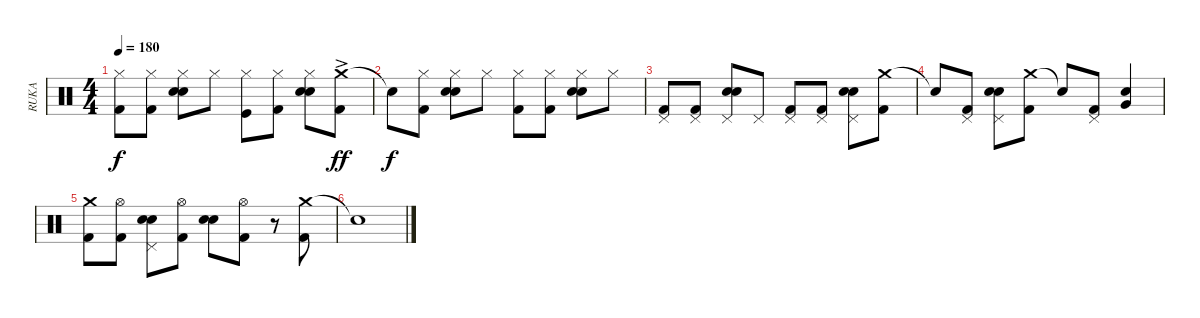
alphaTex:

\track ("RUKA" "RUKA") {instrument percussion}
\staff {score}
\articulation defaults
\ts (4 4)
\tempo 180
\clef neutral
\ks c
("Hi-Hat (closed)" "Kick (hit) 2").8{dy f} ("Hi-Hat (closed)" "Kick (hit) 2").8 ("Hi-Hat (closed)" "Snare (hit) 2" "Electric Snare (hit)").8 "Hi-Hat (closed)".8 ("Hi-Hat (closed)" "Kick (hit)").8 ("Hi-Hat (closed)" "Kick (hit) 2").8 ("Hi-Hat (closed)" "Snare (hit) 2" "Electric Snare (hit)").8 ("Crash medium (hit)"{ac} "Kick (hit) 2").8{dy ff} |
"Snare (hit)"{t}.8{dy f} ("Hi-Hat (closed)" "Kick (hit) 2").8 ("Hi-Hat (closed)" "Snare (hit) 2" "Electric Snare (hit)").8 "Hi-Hat (closed)".8 ("Hi-Hat (closed)" "Kick (hit) 2").8 ("Hi-Hat (closed)" "Kick (hit) 2").8 ("Hi-Hat (closed)" "Snare (hit) 2" "Electric Snare (hit)").8 "Hi-Hat (closed)".8 |
("Pedal Hi-Hat (hit)" "Kick (hit) 2").8 ("Pedal Hi-Hat (hit)" "Kick (hit) 2").8 ("Pedal Hi-Hat (hit)" "Snare (hit) 2" "Electric Snare (hit)").8 "Pedal Hi-Hat (hit)".8 ("Pedal Hi-Hat (hit)" "Kick (hit) 2").8 ("Pedal Hi-Hat (hit)" "Kick (hit) 2").8 ("Pedal Hi-Hat (hit)" "Snare (hit) 2" "Electric Snare (hit)").8 ("Crash medium (hit)" "Kick (hit) 2").8 |
"Snare (hit)"{t}.8 ("Pedal Hi-Hat (hit)" "Kick (hit) 2").8 ("Pedal Hi-Hat (hit)" "Snare (hit) 2" "Electric Snare (hit)").8 ("Crash medium (hit)" "Kick (hit) 2").8 "Snare (hit)"{t}.8 ("Pedal Hi-Hat (hit)" "Kick (hit) 2").8 ("Snare (hit) 2" "Very Low Tom (hit)").4 |
("Crash medium (hit)" "Kick (hit) 2").8 ("Hi-Hat (open)" "Kick (hit) 2").8 ("Pedal Hi-Hat (hit)" "Snare (hit) 2" "Electric Snare (hit)").8 ("Hi-Hat (open)" "Kick (hit) 2").8 ("Snare (hit) 2" "Electric Snare (hit)").8 ("Hi-Hat (open)" "Kick (hit) 2").8 r.8 ("Crash medium (hit)" "Kick (hit) 2").8 |
"Snare (hit)"{t}.1
